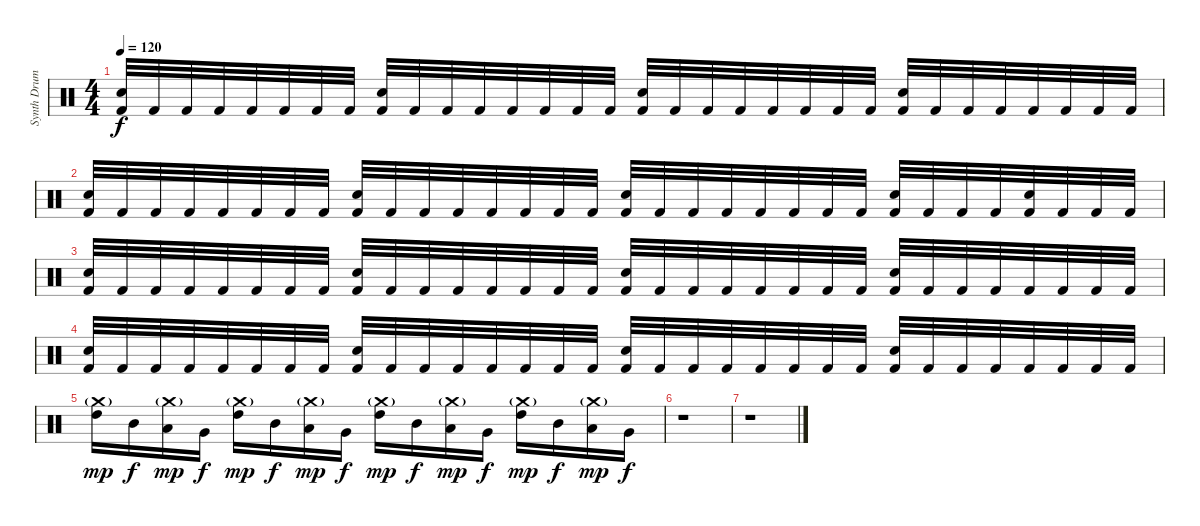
\track ("Synth Drums" "Synth Drum") {instrument percussion}
\staff {score}
\articulation defaults
\ts (4 4)
\tempo 120
\clef neutral
\ks c
("Snare (hit) 2" "Kick (hit) 2").32{dy f} "Kick (hit) 2".32 "Kick (hit) 2".32 "Kick (hit) 2".32 "Kick (hit) 2".32 "Kick (hit) 2".32 "Kick (hit) 2".32 "Kick (hit) 2".32 ("Snare (hit) 2" "Kick (hit) 2").32 "Kick (hit) 2".32 "Kick (hit) 2".32 "Kick (hit) 2".32 "Kick (hit) 2".32 "Kick (hit) 2".32 "Kick (hit) 2".32 "Kick (hit) 2".32 ("Snare (hit) 2" "Kick (hit) 2").32 "Kick (hit) 2".32 "Kick (hit) 2".32 "Kick (hit) 2".32 "Kick (hit) 2".32 "Kick (hit) 2".32 "Kick (hit) 2".32 "Kick (hit) 2".32 ("Snare (hit) 2" "Kick (hit) 2").32 "Kick (hit) 2".32 "Kick (hit) 2".32 "Kick (hit) 2".32 "Kick (hit) 2".32 "Kick (hit) 2".32 "Kick (hit) 2".32 "Kick (hit) 2".32 |
("Snare (hit) 2" "Kick (hit) 2").32 "Kick (hit) 2".32 "Kick (hit) 2".32 "Kick (hit) 2".32 "Kick (hit) 2".32 "Kick (hit) 2".32 "Kick (hit) 2".32 "Kick (hit) 2".32 ("Snare (hit) 2" "Kick (hit) 2").32 "Kick (hit) 2".32 "Kick (hit) 2".32 "Kick (hit) 2".32 "Kick (hit) 2".32 "Kick (hit) 2".32 "Kick (hit) 2".32 "Kick (hit) 2".32 ("Snare (hit) 2" "Kick (hit) 2").32 "Kick (hit) 2".32 "Kick (hit) 2".32 "Kick (hit) 2".32 "Kick (hit) 2".32 "Kick (hit) 2".32 "Kick (hit) 2".32 "Kick (hit) 2".32 ("Snare (hit) 2" "Kick (hit) 2").32 "Kick (hit) 2".32 "Kick (hit) 2".32 "Kick (hit) 2".32 ("Snare (hit) 2" "Kick (hit) 2").32 "Kick (hit) 2".32 "Kick (hit) 2".32 "Kick (hit) 2".32 |
("Snare (hit) 2" "Kick (hit) 2").32 "Kick (hit) 2".32 "Kick (hit) 2".32 "Kick (hit) 2".32 "Kick (hit) 2".32 "Kick (hit) 2".32 "Kick (hit) 2".32 "Kick (hit) 2".32 ("Snare (hit) 2" "Kick (hit) 2").32 "Kick (hit) 2".32 "Kick (hit) 2".32 "Kick (hit) 2".32 "Kick (hit) 2".32 "Kick (hit) 2".32 "Kick (hit) 2".32 "Kick (hit) 2".32 ("Snare (hit) 2" "Kick (hit) 2").32 "Kick (hit) 2".32 "Kick (hit) 2".32 "Kick (hit) 2".32 "Kick (hit) 2".32 "Kick (hit) 2".32 "Kick (hit) 2".32 "Kick (hit) 2".32 ("Snare (hit) 2" "Kick (hit) 2").32 "Kick (hit) 2".32 "Kick (hit) 2".32 "Kick (hit) 2".32 "Kick (hit) 2".32 "Kick (hit) 2".32 "Kick (hit) 2".32 "Kick (hit) 2".32 |
("Snare (hit) 2" "Kick (hit) 2").32 "Kick (hit) 2".32 "Kick (hit) 2".32 "Kick (hit) 2".32 "Kick (hit) 2".32 "Kick (hit) 2".32 "Kick (hit) 2".32 "Kick (hit) 2".32 ("Snare (hit) 2" "Kick (hit) 2").32 "Kick (hit) 2".32 "Kick (hit) 2".32 "Kick (hit) 2".32 "Kick (hit) 2".32 "Kick (hit) 2".32 "Kick (hit) 2".32 "Kick (hit) 2".32 ("Snare (hit) 2" "Kick (hit) 2").32 "Kick (hit) 2".32 "Kick (hit) 2".32 "Kick (hit) 2".32 "Kick (hit) 2".32 "Kick (hit) 2".32 "Kick (hit) 2".32 "Kick (hit) 2".32 ("Snare (hit) 2" "Kick (hit) 2").32 "Kick (hit) 2".32 "Kick (hit) 2".32 "Kick (hit) 2".32 "Kick (hit) 2".32 "Kick (hit) 2".32 "Kick (hit) 2".32 "Kick (hit) 2".32 |
("Crash medium (hit)"{g} "High Tom (hit)").16{dy mp} "Mid Tom (hit)".16{dy f} ("Crash medium (hit)"{g} "Low Tom (hit)").16{dy mp} "Very Low Tom (hit)".16{dy f} ("Crash medium (hit)"{g} "High Tom (hit)").16{dy mp} "Mid Tom (hit)".16{dy f} ("Crash medium (hit)"{g} "Low Tom (hit)").16{dy mp} "Very Low Tom (hit)".16{dy f} ("Crash medium (hit)"{g} "High Tom (hit)").16{dy mp} "Mid Tom (hit)".16{dy f} ("Crash medium (hit)"{g} "Low Tom (hit)").16{dy mp} "Very Low Tom (hit)".16{dy f} ("Crash medium (hit)"{g} "High Tom (hit)").16{dy mp} "Mid Tom (hit)".16{dy f} ("Crash medium (hit)"{g} "Low Tom (hit)").16{dy mp} "Very Low Tom (hit)".16{dy f} |
r.1 |
r.1
